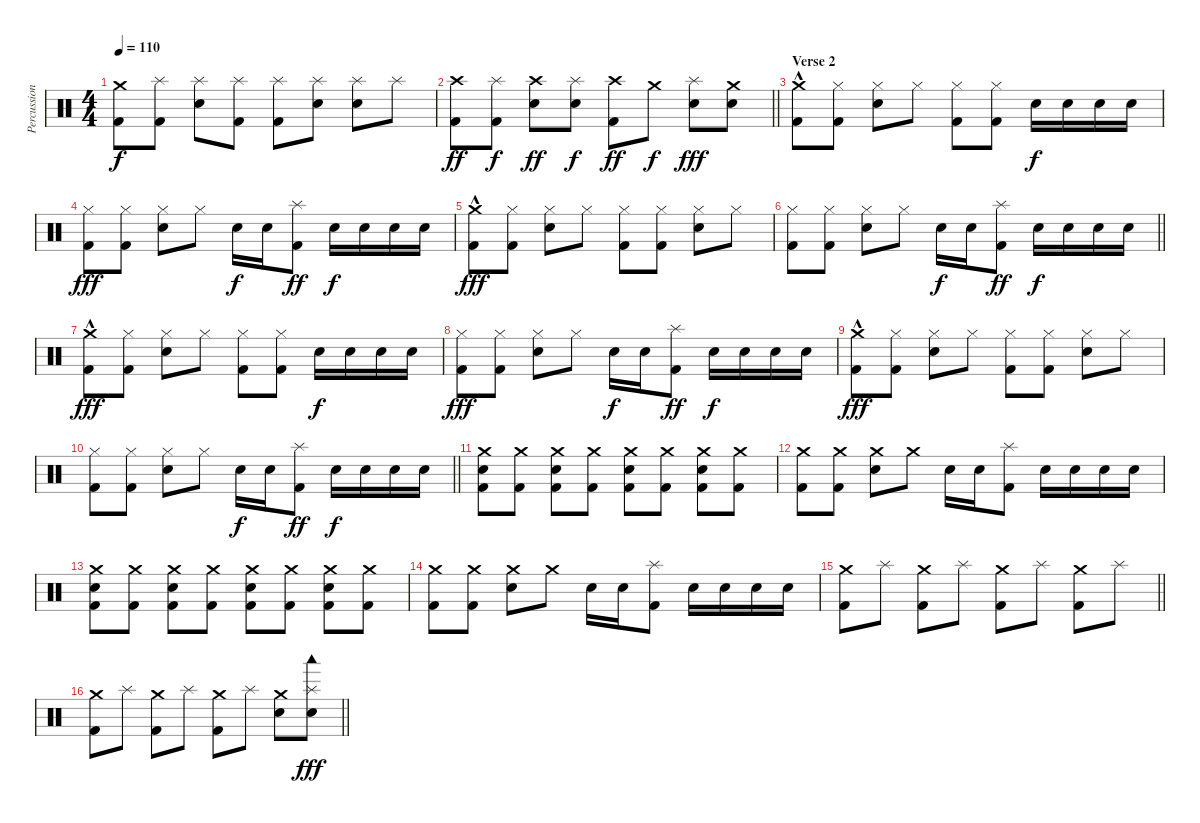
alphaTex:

\track ("Percussion" "Percussion") {instrument percussion}
\staff {score}
\articulation defaults
\ts (4 4)
\tempo 110
\clef neutral
\ks c
("Crash medium (hit)" "Kick (hit) 2").8{dy f} ("Splash (hit)" "Kick (hit) 2").8 ("Splash (hit)" "Snare (hit) 2").8 ("Splash (hit)" "Kick (hit) 2").8 ("Splash (hit)" "Kick (hit) 2").8 ("Splash (hit)" "Snare (hit) 2").8 ("Splash (hit)" "Snare (hit) 2").8 "Splash (hit)".8 |
\barLineRight lightlight
("Crash high (hit)" "Kick (hit) 2").8{dy ff} ("Splash (hit)" "Kick (hit) 2").8{dy f} ("Crash high (hit)" "Snare (hit) 2").8{dy ff} ("Splash (hit)" "Snare (hit) 2").8{dy f} ("Crash high (hit)" "Kick (hit) 2").8{dy ff} "Crash medium (hit)".8{dy f} ("Splash (hit)" "Snare (hit) 2").8{dy fff} ("Crash medium (hit)" "Snare (hit) 2").8 |
\section ("" "Verse 2")
("Crash medium (hit)"{hac} "Kick (hit) 2").8 ("Hi-Hat (closed)" "Kick (hit) 2").8 ("Hi-Hat (closed)" "Snare (hit) 2").8 "Hi-Hat (closed)".8 ("Hi-Hat (closed)" "Kick (hit) 2").8 ("Hi-Hat (closed)" "Kick (hit) 2").8 "Snare (hit) 2".16{dy f} "Snare (hit) 2".16 "Snare (hit) 2".16 "Snare (hit) 2".16 |
("Hi-Hat (closed)" "Kick (hit) 2").8{dy fff} ("Hi-Hat (closed)" "Kick (hit) 2").8 ("Hi-Hat (closed)" "Snare (hit) 2").8 "Hi-Hat (closed)".8 "Snare (hit) 2".16{dy f} "Snare (hit) 2".16 ("Splash (hit)" "Kick (hit) 2").8{dy ff} "Snare (hit) 2".16{dy f} "Snare (hit) 2".16 "Snare (hit) 2".16 "Snare (hit) 2".16 |
("Crash medium (hit)"{hac} "Kick (hit) 2").8{dy fff} ("Hi-Hat (closed)" "Kick (hit) 2").8 ("Hi-Hat (closed)" "Snare (hit) 2").8 "Hi-Hat (closed)".8 ("Hi-Hat (closed)" "Kick (hit) 2").8 ("Hi-Hat (closed)" "Kick (hit) 2").8 ("Hi-Hat (closed)" "Snare (hit) 2").8 "Hi-Hat (closed)".8 |
\barLineRight lightlight
("Hi-Hat (closed)" "Kick (hit) 2").8 ("Hi-Hat (closed)" "Kick (hit) 2").8 ("Hi-Hat (closed)" "Snare (hit) 2").8 "Hi-Hat (closed)".8 "Snare (hit) 2".16{dy f} "Snare (hit) 2".16 ("Splash (hit)" "Kick (hit) 2").8{dy ff} "Snare (hit) 2".16{dy f} "Snare (hit) 2".16 "Snare (hit) 2".16 "Snare (hit) 2".16 |
("Crash medium (hit)"{hac} "Kick (hit) 2").8{dy fff} ("Hi-Hat (closed)" "Kick (hit) 2").8 ("Hi-Hat (closed)" "Snare (hit) 2").8 "Hi-Hat (closed)".8 ("Hi-Hat (closed)" "Kick (hit) 2").8 ("Hi-Hat (closed)" "Kick (hit) 2").8 "Snare (hit) 2".16{dy f} "Snare (hit) 2".16 "Snare (hit) 2".16 "Snare (hit) 2".16 |
("Hi-Hat (closed)" "Kick (hit) 2").8{dy fff} ("Hi-Hat (closed)" "Kick (hit) 2").8 ("Hi-Hat (closed)" "Snare (hit) 2").8 "Hi-Hat (closed)".8 "Snare (hit) 2".16{dy f} "Snare (hit) 2".16 ("Splash (hit)" "Kick (hit) 2").8{dy ff} "Snare (hit) 2".16{dy f} "Snare (hit) 2".16 "Snare (hit) 2".16 "Snare (hit) 2".16 |
("Crash medium (hit)"{hac} "Kick (hit) 2").8{dy fff} ("Hi-Hat (closed)" "Kick (hit) 2").8 ("Hi-Hat (closed)" "Snare (hit) 2").8 "Hi-Hat (closed)".8 ("Hi-Hat (closed)" "Kick (hit) 2").8 ("Hi-Hat (closed)" "Kick (hit) 2").8 ("Hi-Hat (closed)" "Snare (hit) 2").8 "Hi-Hat (closed)".8 |
\barLineRight lightlight
("Hi-Hat (closed)" "Kick (hit) 2").8 ("Hi-Hat (closed)" "Kick (hit) 2").8 ("Hi-Hat (closed)" "Snare (hit) 2").8 "Hi-Hat (closed)".8 "Snare (hit) 2".16{dy f} "Snare (hit) 2".16 ("Splash (hit)" "Kick (hit) 2").8{dy ff} "Snare (hit) 2".16{dy f} "Snare (hit) 2".16 "Snare (hit) 2".16 "Snare (hit) 2".16 |
("Crash medium (hit)" "Snare (hit) 2" "Kick (hit) 2").8 ("Crash medium (hit)" "Kick (hit) 2").8 ("Crash medium (hit)" "Snare (hit) 2" "Kick (hit) 2").8 ("Crash medium (hit)" "Kick (hit) 2").8 ("Crash medium (hit)" "Snare (hit) 2" "Kick (hit) 2").8 ("Crash medium (hit)" "Kick (hit) 2").8 ("Crash medium (hit)" "Snare (hit) 2" "Kick (hit) 2").8 ("Crash medium (hit)" "Kick (hit) 2").8 |
("Crash medium (hit)" "Kick (hit) 2").8 ("Crash medium (hit)" "Kick (hit) 2").8 ("Crash medium (hit)" "Snare (hit) 2").8 "Crash medium (hit)".8 "Snare (hit) 2".16 "Snare (hit) 2".16 ("Splash (hit)" "Kick (hit) 2").8 "Snare (hit) 2".16 "Snare (hit) 2".16 "Snare (hit) 2".16 "Snare (hit) 2".16 |
("Crash medium (hit)" "Snare (hit) 2" "Kick (hit) 2").8 ("Crash medium (hit)" "Kick (hit) 2").8 ("Crash medium (hit)" "Snare (hit) 2" "Kick (hit) 2").8 ("Crash medium (hit)" "Kick (hit) 2").8 ("Crash medium (hit)" "Snare (hit) 2" "Kick (hit) 2").8 ("Crash medium (hit)" "Kick (hit) 2").8 ("Crash medium (hit)" "Snare (hit) 2" "Kick (hit) 2").8 ("Crash medium (hit)" "Kick (hit) 2").8 |
("Crash medium (hit)" "Kick (hit) 2").8 ("Crash medium (hit)" "Kick (hit) 2").8 ("Crash medium (hit)" "Snare (hit) 2").8 "Crash medium (hit)".8 "Snare (hit) 2".16 "Snare (hit) 2".16 ("Splash (hit)" "Kick (hit) 2").8 "Snare (hit) 2".16 "Snare (hit) 2".16 "Snare (hit) 2".16 "Snare (hit) 2".16 |
\barLineRight lightlight
("Crash medium (hit)" "Kick (hit) 2").8 "Splash (hit)".8 ("Crash medium (hit)" "Kick (hit) 2").8 "Splash (hit)".8 ("Crash medium (hit)" "Kick (hit) 2").8 "Splash (hit)".8 ("Crash medium (hit)" "Kick (hit) 2").8 "Splash (hit)".8 |
\barLineRight lightlight
("Crash medium (hit)" "Kick (hit) 2").8 "Splash (hit)".8 ("Crash medium (hit)" "Kick (hit) 2").8 "Splash (hit)".8 ("Crash medium (hit)" "Kick (hit) 2").8 "Splash (hit)".8 ("Crash medium (hit)" "Snare (hit) 2").8 ("Splash (hit)" "Snare (hit) 2" "Woodblock low (hit)").8{dy fff}
